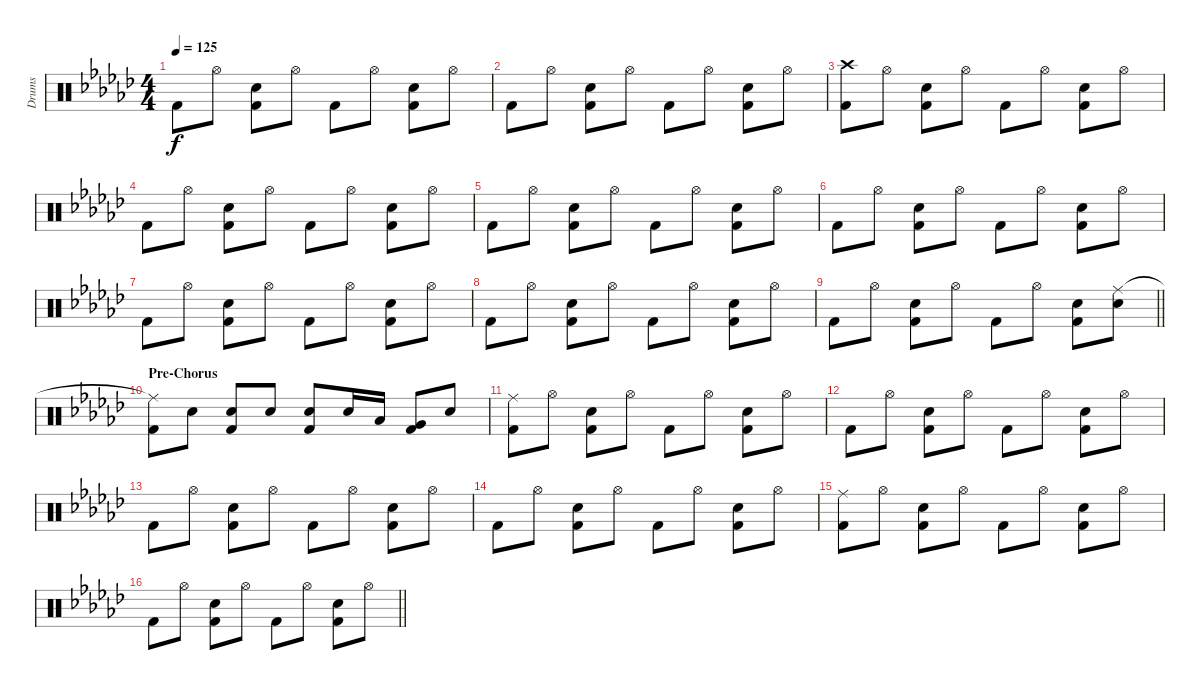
\track ("Drums" "Drums") {instrument percussion}
\staff {score}
\articulation defaults
\ts (4 4)
\tempo 125
\clef neutral
\ks gb "Kick (hit) 2".8{dy f} "Hi-Hat (open)".8
("Snare (hit) 2" "Kick (hit) 2").8 "Hi-Hat (open)".8 "Kick (hit) 2".8 "Hi-Hat (open)".8 ("Snare (hit) 2" "Kick (hit) 2").8 "Hi-Hat (open)".8 |
"Kick (hit) 2".8 "Hi-Hat (open)".8 ("Snare (hit) 2" "Kick (hit) 2").8 "Hi-Hat (open)".8 "Kick (hit) 2".8 "Hi-Hat (open)".8 ("Snare (hit) 2" "Kick (hit) 2").8 "Hi-Hat (open)".8 |
("Crash high (hit)" "Kick (hit) 2").8 "Hi-Hat (open)".8 ("Snare (hit) 2" "Kick (hit) 2").8 "Hi-Hat (open)".8 "Kick (hit) 2".8 "Hi-Hat (open)".8 ("Snare (hit) 2" "Kick (hit) 2").8 "Hi-Hat (open)".8 |
"Kick (hit) 2".8 "Hi-Hat (open)".8 ("Snare (hit) 2" "Kick (hit) 2").8 "Hi-Hat (open)".8 "Kick (hit) 2".8 "Hi-Hat (open)".8 ("Snare (hit) 2" "Kick (hit) 2").8 "Hi-Hat (open)".8 |
"Kick (hit) 2".8 "Hi-Hat (open)".8 ("Snare (hit) 2" "Kick (hit) 2").8 "Hi-Hat (open)".8 "Kick (hit) 2".8 "Hi-Hat (open)".8 ("Snare (hit) 2" "Kick (hit) 2").8 "Hi-Hat (open)".8 |
"Kick (hit) 2".8 "Hi-Hat (open)".8 ("Snare (hit) 2" "Kick (hit) 2").8 "Hi-Hat (open)".8 "Kick (hit) 2".8 "Hi-Hat (open)".8 ("Snare (hit) 2" "Kick (hit) 2").8 "Hi-Hat (open)".8 |
"Kick (hit) 2".8 "Hi-Hat (open)".8 ("Snare (hit) 2" "Kick (hit) 2").8 "Hi-Hat (open)".8 "Kick (hit) 2".8 "Hi-Hat (open)".8 ("Snare (hit) 2" "Kick (hit) 2").8 "Hi-Hat (open)".8 |
"Kick (hit) 2".8 "Hi-Hat (open)".8 ("Snare (hit) 2" "Kick (hit) 2").8 "Hi-Hat (open)".8 "Kick (hit) 2".8 "Hi-Hat (open)".8 ("Snare (hit) 2" "Kick (hit) 2").8 "Hi-Hat (open)".8 |
\barLineRight lightlight "Kick (hit) 2".8 "Hi-Hat (open)".8
("Snare (hit) 2" "Kick (hit) 2").8 "Hi-Hat (open)".8 "Kick (hit) 2".8 "Hi-Hat (open)".8 ("Snare (hit) 2" "Kick (hit) 2").8 ("Ride (middle)" "Snare (hit) 2").8 |
\section ("" "Pre-Chorus")
("Ride (middle)"{t} "Kick (hit) 2").8 "Snare (hit) 2".8 ("Snare (hit) 2" "Kick (hit) 2").8 "Snare (hit) 2".8 ("Snare (hit) 2" "Kick (hit) 2").8 "Snare (hit) 2".16 "Low Tom (hit)".16 ("Very Low Tom (hit)" "Kick (hit) 2").8 "Snare (hit) 2".8 |
("Ride (middle)" "Kick (hit) 2").8 "Hi-Hat (open)".8 ("Snare (hit) 2" "Kick (hit) 2").8 "Hi-Hat (open)".8 "Kick (hit) 2".8 "Hi-Hat (open)".8 ("Snare (hit) 2" "Kick (hit) 2").8 "Hi-Hat (open)".8 |
"Kick (hit) 2".8 "Hi-Hat (open)".8 ("Snare (hit) 2" "Kick (hit) 2").8 "Hi-Hat (open)".8 "Kick (hit) 2".8 "Hi-Hat (open)".8 ("Snare (hit) 2" "Kick (hit) 2").8 "Hi-Hat (open)".8 |
"Kick (hit) 2".8 "Hi-Hat (open)".8 ("Snare (hit) 2" "Kick (hit) 2").8 "Hi-Hat (open)".8 "Kick (hit) 2".8 "Hi-Hat (open)".8 ("Snare (hit) 2" "Kick (hit) 2").8 "Hi-Hat (open)".8 |
"Kick (hit) 2".8 "Hi-Hat (open)".8 ("Snare (hit) 2" "Kick (hit) 2").8 "Hi-Hat (open)".8 "Kick (hit) 2".8 "Hi-Hat (open)".8 ("Snare (hit) 2" "Kick (hit) 2").8 "Hi-Hat (open)".8 |
("Ride (middle)" "Kick (hit) 2").8 "Hi-Hat (open)".8 ("Snare (hit) 2" "Kick (hit) 2").8 "Hi-Hat (open)".8 "Kick (hit) 2".8 "Hi-Hat (open)".8 ("Snare (hit) 2" "Kick (hit) 2").8 "Hi-Hat (open)".8 |
\barLineRight lightlight "Kick (hit) 2".8 "Hi-Hat (open)".8
("Snare (hit) 2" "Kick (hit) 2").8 "Hi-Hat (open)".8 "Kick (hit) 2".8 "Hi-Hat (open)".8 ("Snare (hit) 2" "Kick (hit) 2").8 "Hi-Hat (open)".8
